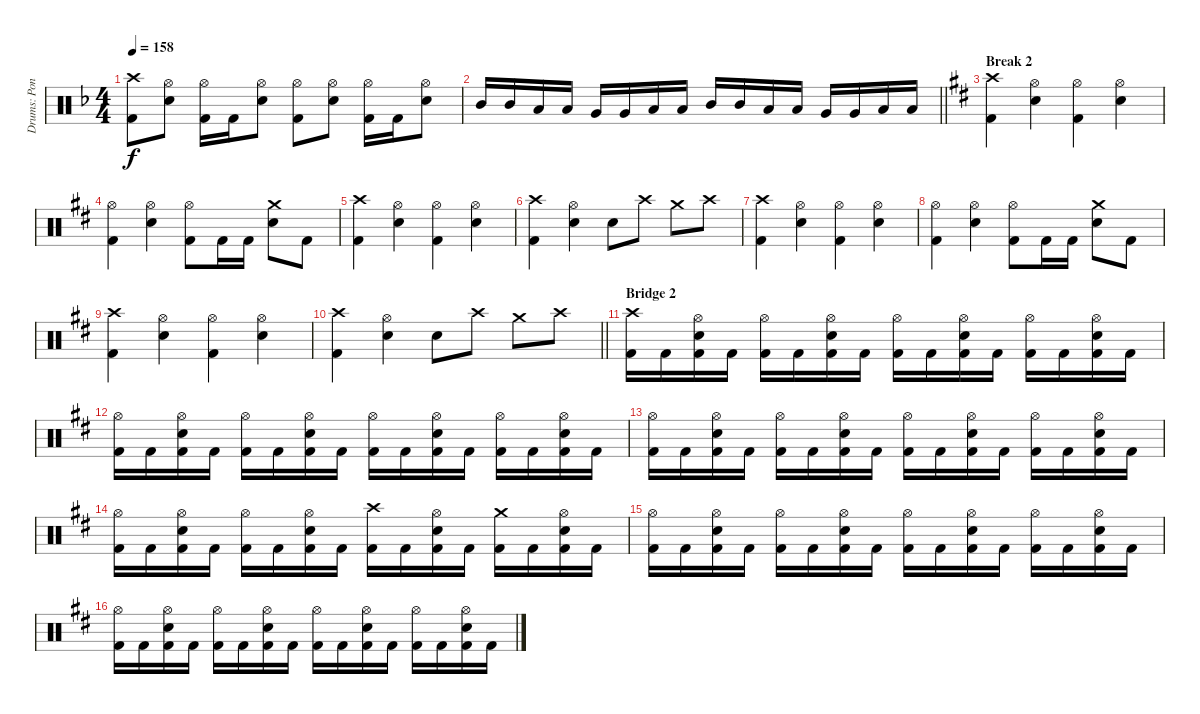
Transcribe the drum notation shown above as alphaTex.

\track ("Drums: Pontus Jansson" "Drums: Pon") {instrument percussion}
\staff {score}
\articulation defaults
\ts (4 4)
\tempo 158
\clef neutral
\ks dminor
("Crash high (hit)" "Kick (hit) 2").8{dy f} ("Hi-Hat (open)" "Electric Snare (hit)").8 ("Hi-Hat (open)" "Kick (hit) 2").16 "Kick (hit) 2".16 ("Hi-Hat (open)" "Electric Snare (hit)").8 ("Hi-Hat (open)" "Kick (hit) 2").8 ("Hi-Hat (open)" "Electric Snare (hit)").8 ("Hi-Hat (open)" "Kick (hit) 2").16 "Kick (hit) 2".16 ("Hi-Hat (open)" "Electric Snare (hit)").8 |
\barLineRight lightlight "Mid Tom (hit)".16 "Mid Tom (hit)".16 "Low Tom (hit)".16 "Low Tom (hit)".16 "Very Low Tom (hit)".16 "Very Low Tom (hit)".16 "Low Tom (hit)".16 "Low Tom (hit)".16 "Mid Tom (hit)".16 "Mid Tom (hit)".16 "Low Tom (hit)".16 "Low Tom (hit)".16 "Very Low Tom (hit)".16 "Very Low Tom (hit)".16 "Low Floor Tom (hit)".16 "Low Floor Tom (hit)".16
|
\section ("" "Break 2")
\ks bminor
("Crash high (hit)" "Kick (hit) 2").4 ("Hi-Hat (open)" "Electric Snare (hit)").4 ("Hi-Hat (open)" "Kick (hit) 2").4 ("Hi-Hat (open)" "Electric Snare (hit)").4 |
("Hi-Hat (open)" "Kick (hit) 2").4 ("Hi-Hat (open)" "Electric Snare (hit)").4 ("Hi-Hat (open)" "Kick (hit) 2").8 "Kick (hit) 2".16 "Kick (hit) 2".16 ("Crash medium (hit)" "Electric Snare (hit)").8 "Kick (hit) 2".8 |
("Crash high (hit)" "Kick (hit) 2").4 ("Hi-Hat (open)" "Electric Snare (hit)").4 ("Hi-Hat (open)" "Kick (hit) 2").4 ("Hi-Hat (open)" "Electric Snare (hit)").4 |
("Crash high (hit)" "Kick (hit) 2").4 ("Hi-Hat (open)" "Electric Snare (hit)").4 "Electric Snare (hit)".8 "Crash high (hit)".8 "Crash medium (hit)".8 "Crash high (hit)".8 |
("Crash high (hit)" "Kick (hit) 2").4 ("Hi-Hat (open)" "Electric Snare (hit)").4 ("Hi-Hat (open)" "Kick (hit) 2").4 ("Hi-Hat (open)" "Electric Snare (hit)").4 |
("Hi-Hat (open)" "Kick (hit) 2").4 ("Hi-Hat (open)" "Electric Snare (hit)").4 ("Hi-Hat (open)" "Kick (hit) 2").8 "Kick (hit) 2".16 "Kick (hit) 2".16 ("Crash medium (hit)" "Electric Snare (hit)").8 "Kick (hit) 2".8 |
("Crash high (hit)" "Kick (hit) 2").4 ("Hi-Hat (open)" "Electric Snare (hit)").4 ("Hi-Hat (open)" "Kick (hit) 2").4 ("Hi-Hat (open)" "Electric Snare (hit)").4 |
\barLineRight lightlight
("Crash high (hit)" "Kick (hit) 2").4 ("Hi-Hat (open)" "Electric Snare (hit)").4 "Electric Snare (hit)".8 "Crash high (hit)".8 "Crash medium (hit)".8 "Crash high (hit)".8 |
\section ("" "Bridge 2")
("Crash high (hit)" "Kick (hit) 2").16 "Kick (hit) 2".16 ("Hi-Hat (open)" "Electric Snare (hit)" "Kick (hit) 2").16 "Kick (hit) 2".16 ("Hi-Hat (open)" "Kick (hit) 2").16 "Kick (hit) 2".16 ("Hi-Hat (open)" "Electric Snare (hit)" "Kick (hit) 2").16 "Kick (hit) 2".16 ("Hi-Hat (open)" "Kick (hit) 2").16 "Kick (hit) 2".16 ("Hi-Hat (open)" "Electric Snare (hit)" "Kick (hit) 2").16 "Kick (hit) 2".16 ("Hi-Hat (open)" "Kick (hit) 2").16 "Kick (hit) 2".16 ("Hi-Hat (open)" "Electric Snare (hit)" "Kick (hit) 2").16 "Kick (hit) 2".16 |
("Hi-Hat (open)" "Kick (hit) 2").16 "Kick (hit) 2".16 ("Hi-Hat (open)" "Electric Snare (hit)" "Kick (hit) 2").16 "Kick (hit) 2".16 ("Hi-Hat (open)" "Kick (hit) 2").16 "Kick (hit) 2".16 ("Hi-Hat (open)" "Electric Snare (hit)" "Kick (hit) 2").16 "Kick (hit) 2".16 ("Hi-Hat (open)" "Kick (hit) 2").16 "Kick (hit) 2".16 ("Hi-Hat (open)" "Electric Snare (hit)" "Kick (hit) 2").16 "Kick (hit) 2".16 ("Hi-Hat (open)" "Kick (hit) 2").16 "Kick (hit) 2".16 ("Hi-Hat (open)" "Electric Snare (hit)" "Kick (hit) 2").16 "Kick (hit) 2".16 |
("Hi-Hat (open)" "Kick (hit) 2").16 "Kick (hit) 2".16 ("Hi-Hat (open)" "Electric Snare (hit)" "Kick (hit) 2").16 "Kick (hit) 2".16 ("Hi-Hat (open)" "Kick (hit) 2").16 "Kick (hit) 2".16 ("Hi-Hat (open)" "Electric Snare (hit)" "Kick (hit) 2").16 "Kick (hit) 2".16 ("Hi-Hat (open)" "Kick (hit) 2").16 "Kick (hit) 2".16 ("Hi-Hat (open)" "Electric Snare (hit)" "Kick (hit) 2").16 "Kick (hit) 2".16 ("Hi-Hat (open)" "Kick (hit) 2").16 "Kick (hit) 2".16 ("Hi-Hat (open)" "Electric Snare (hit)" "Kick (hit) 2").16 "Kick (hit) 2".16 |
("Hi-Hat (open)" "Kick (hit) 2").16 "Kick (hit) 2".16 ("Hi-Hat (open)" "Electric Snare (hit)" "Kick (hit) 2").16 "Kick (hit) 2".16 ("Hi-Hat (open)" "Kick (hit) 2").16 "Kick (hit) 2".16 ("Hi-Hat (open)" "Electric Snare (hit)" "Kick (hit) 2").16 "Kick (hit) 2".16 ("Crash high (hit)" "Kick (hit) 2").16 "Kick (hit) 2".16 ("Hi-Hat (open)" "Electric Snare (hit)" "Kick (hit) 2").16 "Kick (hit) 2".16 ("Crash medium (hit)" "Kick (hit) 2").16 "Kick (hit) 2".16 ("Hi-Hat (open)" "Electric Snare (hit)" "Kick (hit) 2").16 "Kick (hit) 2".16 |
("Hi-Hat (open)" "Kick (hit) 2").16 "Kick (hit) 2".16 ("Hi-Hat (open)" "Electric Snare (hit)" "Kick (hit) 2").16 "Kick (hit) 2".16 ("Hi-Hat (open)" "Kick (hit) 2").16 "Kick (hit) 2".16 ("Hi-Hat (open)" "Electric Snare (hit)" "Kick (hit) 2").16 "Kick (hit) 2".16 ("Hi-Hat (open)" "Kick (hit) 2").16 "Kick (hit) 2".16 ("Hi-Hat (open)" "Electric Snare (hit)" "Kick (hit) 2").16 "Kick (hit) 2".16 ("Hi-Hat (open)" "Kick (hit) 2").16 "Kick (hit) 2".16 ("Hi-Hat (open)" "Electric Snare (hit)" "Kick (hit) 2").16 "Kick (hit) 2".16 |
("Hi-Hat (open)" "Kick (hit) 2").16 "Kick (hit) 2".16 ("Hi-Hat (open)" "Electric Snare (hit)" "Kick (hit) 2").16 "Kick (hit) 2".16 ("Hi-Hat (open)" "Kick (hit) 2").16 "Kick (hit) 2".16 ("Hi-Hat (open)" "Electric Snare (hit)" "Kick (hit) 2").16 "Kick (hit) 2".16 ("Hi-Hat (open)" "Kick (hit) 2").16 "Kick (hit) 2".16 ("Hi-Hat (open)" "Electric Snare (hit)" "Kick (hit) 2").16 "Kick (hit) 2".16 ("Hi-Hat (open)" "Kick (hit) 2").16 "Kick (hit) 2".16 ("Hi-Hat (open)" "Electric Snare (hit)" "Kick (hit) 2").16 "Kick (hit) 2".16
